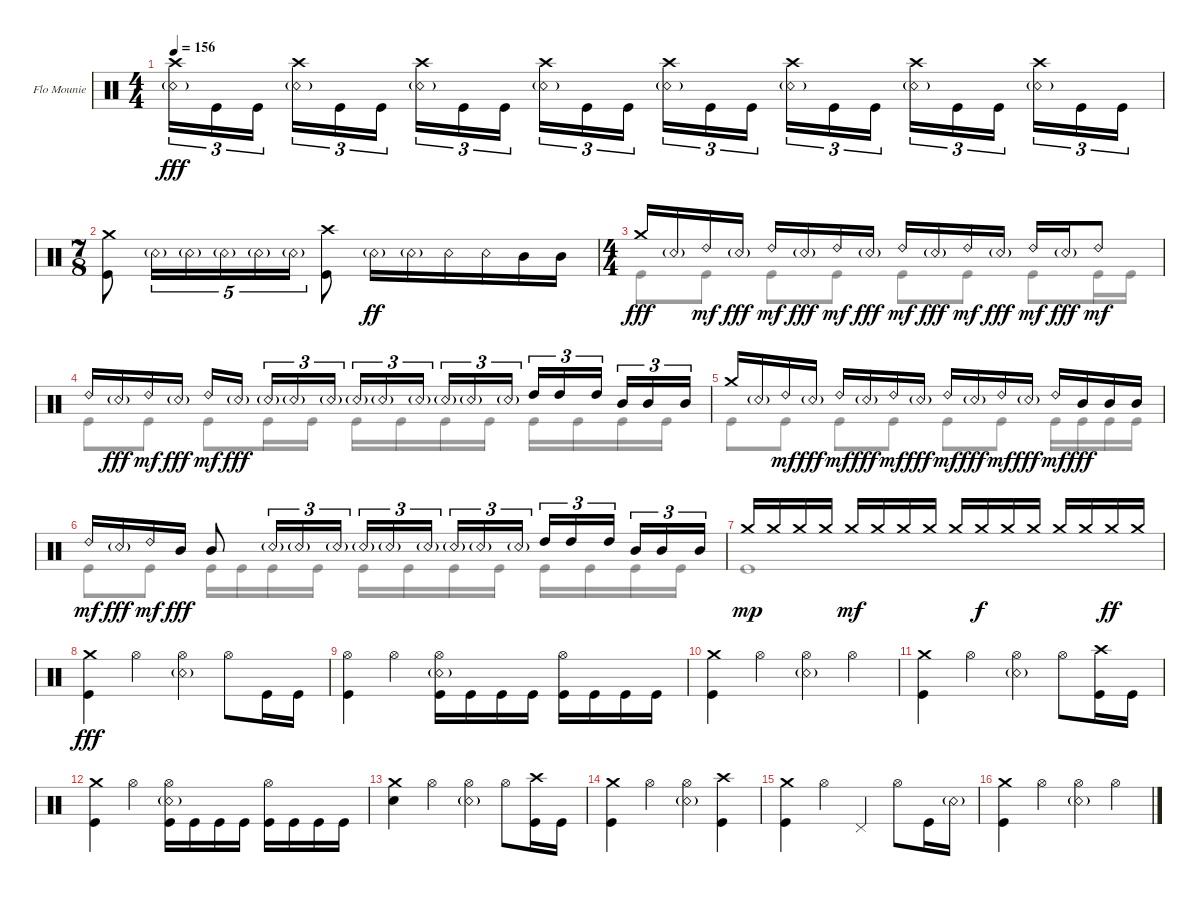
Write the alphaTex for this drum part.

\bracketExtendMode groupsimilarinstruments
\firstSystemTrackNameOrientation horizontal
\otherSystemsTrackNameOrientation horizontal
\track ("Flo Mounier" "Flo Mounie") {instrument percussion}
\staff {score}
\articulation defaults
\voice
\ts (4 4)
\tempo 156
\clef neutral
\ks c
("Snare (rim shot)"{g} "Crash high (hit)").16{tu (3 2) dy fff} "Kick (hit)".16{tu (3 2)} "Kick (hit)".16{tu (3 2)} ("Snare (rim shot)"{g} "Crash high (hit)").16{tu (3 2)} "Kick (hit)".16{tu (3 2)} "Kick (hit)".16{tu (3 2)} ("Snare (rim shot)"{g} "Crash high (hit)").16{tu (3 2)} "Kick (hit)".16{tu (3 2)} "Kick (hit)".16{tu (3 2)} ("Snare (rim shot)"{g} "Crash high (hit)").16{tu (3 2)} "Kick (hit)".16{tu (3 2)} "Kick (hit)".16{tu (3 2)} ("Snare (rim shot)"{g} "Crash high (hit)").16{tu (3 2)} "Kick (hit)".16{tu (3 2)} "Kick (hit)".16{tu (3 2)} ("Snare (rim shot)"{g} "Crash high (hit)").16{tu (3 2)} "Kick (hit)".16{tu (3 2)} "Kick (hit)".16{tu (3 2)} ("Snare (rim shot)"{g} "Crash high (hit)").16{tu (3 2)} "Kick (hit)".16{tu (3 2)} "Kick (hit)".16{tu (3 2)} ("Snare (rim shot)"{g} "Crash high (hit)").16{tu (3 2)} "Kick (hit)".16{tu (3 2)} "Kick (hit)".16{tu (3 2)} |
\ts (7 8)
("Kick (hit)" "Crash medium (hit)").8 "Snare (rim shot)"{g}.16{tu (5 4)} "Snare (rim shot)"{g}.16{tu (5 4)} "Snare (rim shot)"{g}.16{tu (5 4)} "Snare (rim shot)"{g}.16{tu (5 4)} "Snare (rim shot)"{g}.16{tu (5 4)} ("Kick (hit)" "Crash high (hit)").8 "Snare (rim shot)"{g}.16{dy ff} "Snare (rim shot)"{g}.16 "Snare (rim shot)".16 "Snare (rim shot)".16 "Mid Tom (hit)".16 "Mid Tom (hit)".16 |
\ts (4 4)
\scale
0.250342 "Crash medium (hit)".16{dy fff} "Snare (rim shot)"{g}.16 "Ride (bell) 2".16{dy mf} "Snare (rim shot)"{g}.16{dy fff} "Ride (bell) 2".16{dy mf} "Snare (rim shot)"{g}.16{dy fff} "Ride (bell) 2".16{dy mf} "Snare (rim shot)"{g}.16{dy fff} "Ride (bell) 2".16{dy mf} "Snare (rim shot)"{g}.16{dy fff} "Ride (bell) 2".16{dy mf} "Snare (rim shot)"{g}.16{dy fff} "Ride (bell) 2".16{dy mf} "Snare (rim shot)"{g}.16{dy fff} "Ride (bell) 2".8{dy mf} |
\scale
0.220574 "Ride (bell) 2".16 "Snare (rim shot)"{g}.16{dy fff} "Ride (bell) 2".16{dy mf} "Snare (rim shot)"{g}.16{dy fff} "Ride (bell) 2".16{dy mf} "Snare (rim shot)"{g}.16{dy fff} "Snare (rim shot)"{g}.16{tu (3 2)} "Snare (rim shot)"{g}.16{tu (3 2)} "Snare (rim shot)"{g}.16{tu (3 2)} "Snare (rim shot)"{g}.16{tu (3 2)} "Snare (rim shot)"{g}.16{tu (3 2)} "Snare (rim shot)"{g}.16{tu (3 2)} "Snare (rim shot)"{g}.16{tu (3 2)} "Snare (rim shot)"{g}.16{tu (3 2)} "Snare (rim shot)"{g}.16{tu (3 2)} "High Tom (hit)".16{tu (3 2)} "High Tom (hit)".16{tu (3 2)} "High Tom (hit)".16{tu (3 2)} "Mid Tom (hit)".16{tu (3 2)} "Mid Tom (hit)".16{tu (3 2)} "Mid Tom (hit)".16{tu (3 2)} |
\scale
0.236706 "Crash medium (hit)".16 "Snare (rim shot)"{g}.16 "Ride (bell) 2".16{dy mf} "Snare (rim shot)"{g}.16{dy fff} "Ride (bell) 2".16{dy mf} "Snare (rim shot)"{g}.16{dy fff} "Ride (bell) 2".16{dy mf} "Snare (rim shot)"{g}.16{dy fff} "Ride (bell) 2".16{dy mf} "Snare (rim shot)"{g}.16{dy fff} "Ride (bell) 2".16{dy mf} "Snare (rim shot)"{g}.16{dy fff} "Ride (bell) 2".16{dy mf} "Mid Tom (hit)".16{dy fff} "Mid Tom (hit)".16 "Mid Tom (hit)".16 |
\scale
0.292396 "Ride (bell) 2".16{dy mf} "Snare (rim shot)"{g}.16{dy fff} "Ride (bell) 2".16{dy mf} "Mid Tom (hit)".16{dy fff} "Mid Tom (hit)".8 "Snare (rim shot)"{g}.16{tu (3 2)} "Snare (rim shot)"{g}.16{tu (3 2)} "Snare (rim shot)"{g}.16{tu (3 2)} "Snare (rim shot)"{g}.16{tu (3 2)} "Snare (rim shot)"{g}.16{tu (3 2)} "Snare (rim shot)"{g}.16{tu (3 2)} "Snare (rim shot)"{g}.16{tu (3 2)} "Snare (rim shot)"{g}.16{tu (3 2)} "Snare (rim shot)"{g}.16{tu (3 2)} "High Tom (hit)".16{tu (3 2)} "High Tom (hit)".16{tu (3 2)} "High Tom (hit)".16{tu (3 2)} "Mid Tom (hit)".16{tu (3 2)} "Mid Tom (hit)".16{tu (3 2)} "Mid Tom (hit)".16{tu (3 2)} |
"Crash medium (hit)".16{dy mp} "Crash medium (hit)".16 "Crash medium (hit)".16 "Crash medium (hit)".16 "Crash medium (hit)".16{dy mf} "Crash medium (hit)".16 "Crash medium (hit)".16 "Crash medium (hit)".16 "Crash medium (hit)".16 "Crash medium (hit)".16{dy f} "Crash medium (hit)".16 "Crash medium (hit)".16 "Crash medium (hit)".16 "Crash medium (hit)".16 "Crash medium (hit)".16{dy ff} "Crash medium (hit)".16 |
("Crash medium (hit)" "Kick (hit)").4{dy fff} "Hi-Hat (open)".4 ("Hi-Hat (open)" "Snare (rim shot)"{g}).4 "Hi-Hat (open)".8 "Kick (hit)".16 "Kick (hit)".16 |
("Kick (hit)" "Hi-Hat (open)").4 "Hi-Hat (open)".4 ("Kick (hit)" "Snare (rim shot)"{g} "Hi-Hat (open)").16 "Kick (hit)".16 "Kick (hit)".16 "Kick (hit)".16 ("Kick (hit)" "Hi-Hat (open)").16 "Kick (hit)".16 "Kick (hit)".16 "Kick (hit)".16 |
("Crash medium (hit)" "Kick (hit)").4 "Hi-Hat (open)".4 ("Hi-Hat (open)" "Snare (rim shot)"{g}).4 "Hi-Hat (open)".4 |
("Crash medium (hit)" "Kick (hit)").4 "Hi-Hat (open)".4 ("Hi-Hat (open)" "Snare (rim shot)"{g}).4 "Hi-Hat (open)".8 ("Kick (hit)" "Crash high (hit)").16 "Kick (hit)".16 |
("Kick (hit)" "Crash medium (hit)").4 "Hi-Hat (open)".4 ("Kick (hit)" "Snare (rim shot)"{g} "Hi-Hat (open)").16 "Kick (hit)".16 "Kick (hit)".16 "Kick (hit)".16 ("Kick (hit)" "Hi-Hat (open)").16 "Kick (hit)".16 "Kick (hit)".16 "Kick (hit)".16 |
("Snare (hit) 2" "Crash medium (hit)").4 "Hi-Hat (open)".4 ("Hi-Hat (open)" "Snare (rim shot)"{g}).4 "Hi-Hat (open)".8 ("Kick (hit)" "Crash high (hit)").16 "Kick (hit)".16 |
("Crash medium (hit)" "Kick (hit)").4 "Hi-Hat (open)".4 ("Hi-Hat (open)" "Snare (rim shot)"{g}).4 ("Crash high (hit)" "Kick (hit)").4 |
("Crash medium (hit)" "Kick (hit)").4 "Hi-Hat (open)".4 "Pedal Hi-Hat (hit)".4 "Hi-Hat (open)".8 "Kick (hit)".16 "Snare (rim shot)"{g}.16 |
("Kick (hit)" "Crash medium (hit)").4 "Hi-Hat (open)".4 ("Hi-Hat (open)" "Snare (rim shot)"{g}).4 "Hi-Hat (open)".4
\voice
\clef neutral
\ottava regular
\simile none
\ks c
|
|
\scale
0.250342 "Kick (hit)".8 "Kick (hit)".8 "Kick (hit)".8 "Kick (hit)".8 "Kick (hit)".8 "Kick (hit)".8 "Kick (hit)".8 "Kick (hit)".16 "Kick (hit)".16 |
\scale
0.220574 "Kick (hit)".8 "Kick (hit)".8 "Kick (hit)".8 "Kick (hit)".16 "Kick (hit)".16 "Kick (hit)".16 "Kick (hit)".16 "Kick (hit)".16 "Kick (hit)".16 "Kick (hit)".16 "Kick (hit)".16 "Kick (hit)".16 "Kick (hit)".16 |
\scale
0.236706 "Kick (hit)".8 "Kick (hit)".8 "Kick (hit)".8 "Kick (hit)".8 "Kick (hit)".8 "Kick (hit)".8 "Kick (hit)".16 "Kick (hit)".16 "Kick (hit)".16 "Kick (hit)".16 |
\scale
0.292396 "Kick (hit)".8 "Kick (hit)".8 "Kick (hit)".16 "Kick (hit)".16 "Kick (hit)".16 "Kick (hit)".16 "Kick (hit)".16 "Kick (hit)".16 "Kick (hit)".16 "Kick (hit)".16 "Kick (hit)".16 "Kick (hit)".16 "Kick (hit)".16 "Kick (hit)".16 |
"Kick (hit)".1 |
|
|
|
|
|
|
|
|
